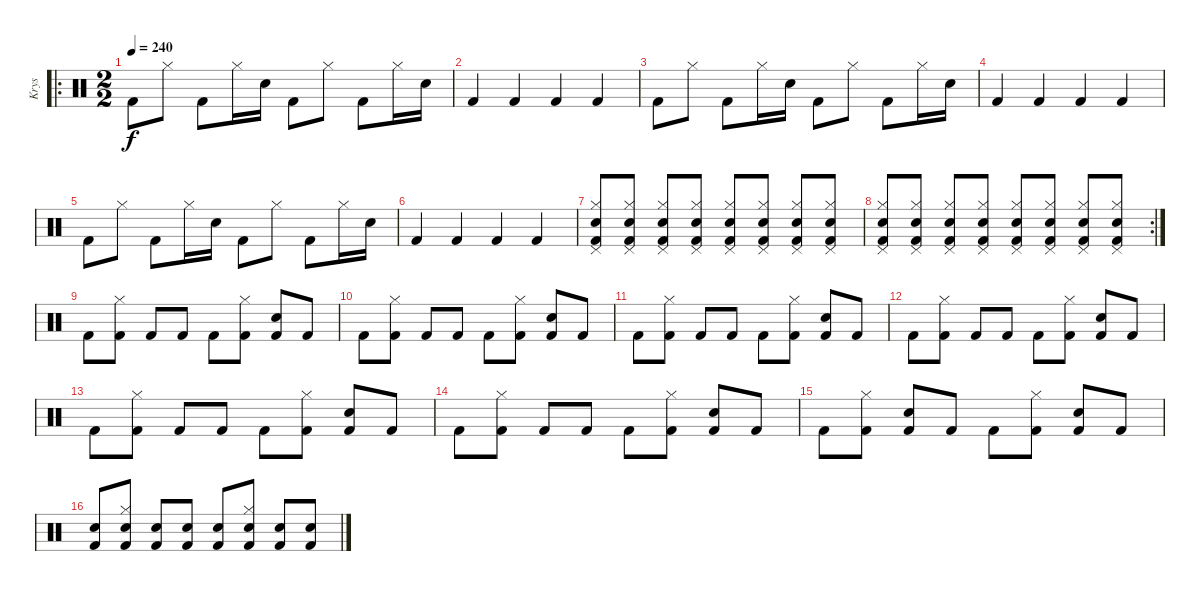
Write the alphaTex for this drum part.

\track ("Krys" "Krys") {instrument percussion}
\staff {score}
\articulation defaults
\ro
\ts (2 2)
\tempo 240
\clef neutral
\ks c "Kick (hit) 2".8{dy f} "Hi-Hat (closed)".8 "Kick (hit) 2".8 "Hi-Hat (closed)".16 "Snare (hit) 2".16 "Kick (hit) 2".8 "Hi-Hat (closed)".8 "Kick (hit) 2".8 "Hi-Hat (closed)".16 "Snare (hit) 2".16
|
"Kick (hit) 2".4 "Kick (hit) 2".4 "Kick (hit) 2".4 "Kick (hit) 2".4 |
"Kick (hit) 2".8 "Hi-Hat (closed)".8 "Kick (hit) 2".8 "Hi-Hat (closed)".16 "Snare (hit) 2".16 "Kick (hit) 2".8 "Hi-Hat (closed)".8 "Kick (hit) 2".8 "Hi-Hat (closed)".16 "Snare (hit) 2".16 |
"Kick (hit) 2".4 "Kick (hit) 2".4 "Kick (hit) 2".4 "Kick (hit) 2".4 |
"Kick (hit) 2".8 "Hi-Hat (closed)".8 "Kick (hit) 2".8 "Hi-Hat (closed)".16 "Snare (hit) 2".16 "Kick (hit) 2".8 "Hi-Hat (closed)".8 "Kick (hit) 2".8 "Hi-Hat (closed)".16 "Snare (hit) 2".16 |
"Kick (hit) 2".4 "Kick (hit) 2".4 "Kick (hit) 2".4 "Kick (hit) 2".4 |
("Hi-Hat (closed)" "Snare (hit) 2" "Pedal Hi-Hat (hit)" "Kick (hit) 2").8 ("Hi-Hat (closed)" "Snare (hit) 2" "Pedal Hi-Hat (hit)" "Kick (hit) 2").8 ("Hi-Hat (closed)" "Snare (hit) 2" "Pedal Hi-Hat (hit)" "Kick (hit) 2").8 ("Hi-Hat (closed)" "Snare (hit) 2" "Pedal Hi-Hat (hit)" "Kick (hit) 2").8 ("Hi-Hat (closed)" "Snare (hit) 2" "Pedal Hi-Hat (hit)" "Kick (hit) 2").8 ("Hi-Hat (closed)" "Snare (hit) 2" "Pedal Hi-Hat (hit)" "Kick (hit) 2").8 ("Hi-Hat (closed)" "Snare (hit) 2" "Pedal Hi-Hat (hit)" "Kick (hit) 2").8 ("Hi-Hat (closed)" "Snare (hit) 2" "Pedal Hi-Hat (hit)" "Kick (hit) 2").8 |
\rc 2
("Hi-Hat (closed)" "Snare (hit) 2" "Kick (hit) 2" "Pedal Hi-Hat (hit)").8 ("Hi-Hat (closed)" "Snare (hit) 2" "Kick (hit) 2" "Pedal Hi-Hat (hit)").8 ("Hi-Hat (closed)" "Snare (hit) 2" "Kick (hit) 2" "Pedal Hi-Hat (hit)").8 ("Hi-Hat (closed)" "Snare (hit) 2" "Kick (hit) 2" "Pedal Hi-Hat (hit)").8 ("Hi-Hat (closed)" "Snare (hit) 2" "Kick (hit) 2" "Pedal Hi-Hat (hit)").8 ("Hi-Hat (closed)" "Snare (hit) 2" "Kick (hit) 2" "Pedal Hi-Hat (hit)").8 ("Hi-Hat (closed)" "Snare (hit) 2" "Kick (hit) 2" "Pedal Hi-Hat (hit)").8 ("Hi-Hat (closed)" "Snare (hit) 2" "Kick (hit) 2" "Pedal Hi-Hat (hit)").8 |
"Kick (hit) 2".8 ("Hi-Hat (closed)" "Kick (hit) 2").8 "Kick (hit) 2".8 "Kick (hit) 2".8 "Kick (hit) 2".8 ("Hi-Hat (closed)" "Kick (hit) 2").8 ("Snare (hit) 2" "Kick (hit) 2").8 "Kick (hit) 2".8 |
"Kick (hit) 2".8 ("Hi-Hat (closed)" "Kick (hit) 2").8 "Kick (hit) 2".8 "Kick (hit) 2".8 "Kick (hit) 2".8 ("Hi-Hat (closed)" "Kick (hit) 2").8 ("Snare (hit) 2" "Kick (hit) 2").8 "Kick (hit) 2".8 |
"Kick (hit) 2".8 ("Hi-Hat (closed)" "Kick (hit) 2").8 "Kick (hit) 2".8 "Kick (hit) 2".8 "Kick (hit) 2".8 ("Hi-Hat (closed)" "Kick (hit) 2").8 ("Snare (hit) 2" "Kick (hit) 2").8 "Kick (hit) 2".8 |
"Kick (hit) 2".8 ("Hi-Hat (closed)" "Kick (hit) 2").8 "Kick (hit) 2".8 "Kick (hit) 2".8 "Kick (hit) 2".8 ("Hi-Hat (closed)" "Kick (hit) 2").8 ("Snare (hit) 2" "Kick (hit) 2").8 "Kick (hit) 2".8 |
"Kick (hit) 2".8 ("Hi-Hat (closed)" "Kick (hit) 2").8 "Kick (hit) 2".8 "Kick (hit) 2".8 "Kick (hit) 2".8 ("Hi-Hat (closed)" "Kick (hit) 2").8 ("Snare (hit) 2" "Kick (hit) 2").8 "Kick (hit) 2".8 |
"Kick (hit) 2".8 ("Hi-Hat (closed)" "Kick (hit) 2").8 "Kick (hit) 2".8 "Kick (hit) 2".8 "Kick (hit) 2".8 ("Hi-Hat (closed)" "Kick (hit) 2").8 ("Snare (hit) 2" "Kick (hit) 2").8 "Kick (hit) 2".8 |
"Kick (hit) 2".8 ("Hi-Hat (closed)" "Kick (hit) 2").8 ("Snare (hit) 2" "Kick (hit) 2").8 "Kick (hit) 2".8 "Kick (hit) 2".8 ("Hi-Hat (closed)" "Kick (hit) 2").8 ("Snare (hit) 2" "Kick (hit) 2").8 "Kick (hit) 2".8 |
("Snare (hit) 2" "Kick (hit) 2").8 ("Snare (hit) 2" "Hi-Hat (closed)" "Kick (hit) 2").8 ("Snare (hit) 2" "Kick (hit) 2").8 ("Snare (hit) 2" "Kick (hit) 2").8 ("Snare (hit) 2" "Kick (hit) 2").8 ("Snare (hit) 2" "Hi-Hat (closed)" "Kick (hit) 2").8 ("Snare (hit) 2" "Kick (hit) 2").8 ("Snare (hit) 2" "Kick (hit) 2").8
